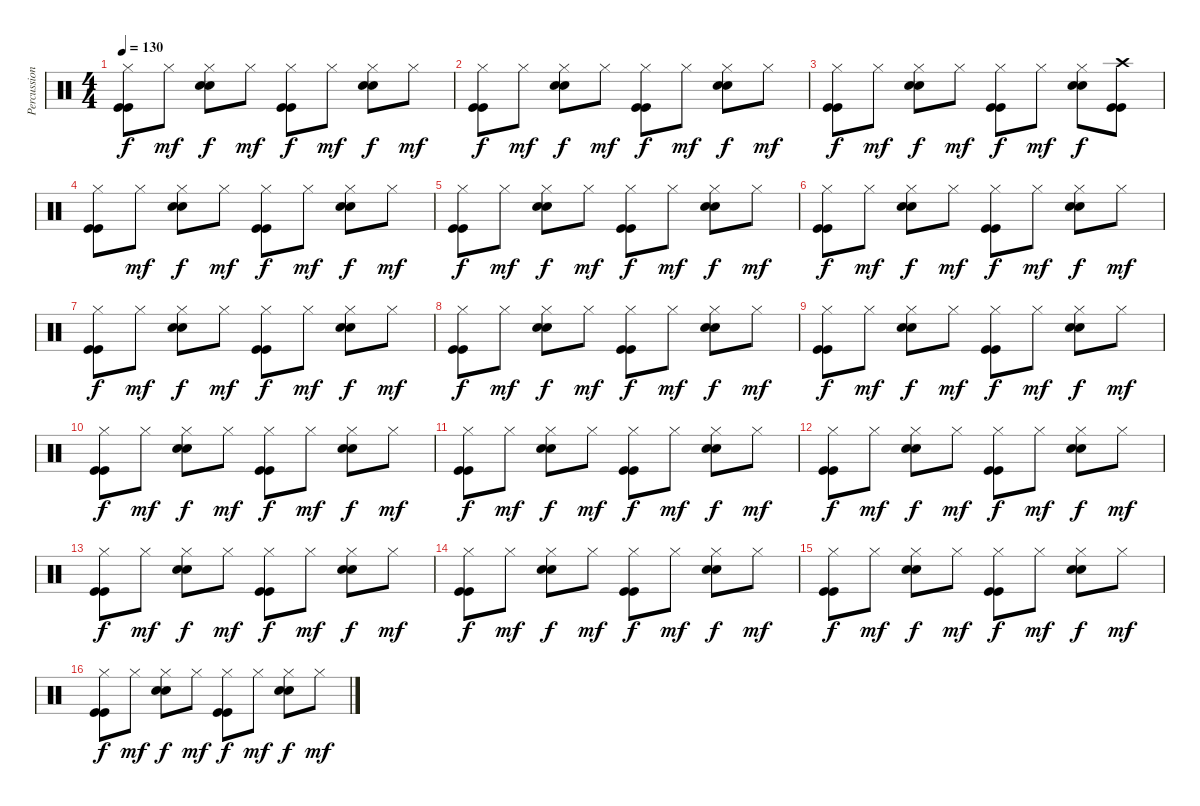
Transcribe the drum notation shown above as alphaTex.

\track ("Percussions" "Percussion") {instrument percussion}
\staff {score}
\articulation defaults
\ts (4 4)
\tempo 130
\clef neutral
\ks c
("Hi-Hat (closed)" "Kick (hit)" "Kick (hit)").8{dy f} "Hi-Hat (closed)".8{dy mf} ("Hi-Hat (closed)" "Snare (hit) 2" "Snare (hit) 2").8{dy f} "Hi-Hat (closed)".8{dy mf} ("Hi-Hat (closed)" "Kick (hit)" "Kick (hit)").8{dy f} "Hi-Hat (closed)".8{dy mf} ("Hi-Hat (closed)" "Snare (hit) 2" "Snare (hit) 2").8{dy f} "Hi-Hat (closed)".8{dy mf} |
("Hi-Hat (closed)" "Kick (hit)" "Kick (hit)").8{dy f} "Hi-Hat (closed)".8{dy mf} ("Hi-Hat (closed)" "Snare (hit) 2" "Snare (hit) 2").8{dy f} "Hi-Hat (closed)".8{dy mf} ("Hi-Hat (closed)" "Kick (hit)" "Kick (hit)").8{dy f} "Hi-Hat (closed)".8{dy mf} ("Hi-Hat (closed)" "Snare (hit) 2" "Snare (hit) 2").8{dy f} "Hi-Hat (closed)".8{dy mf} |
("Hi-Hat (closed)" "Kick (hit)" "Kick (hit)").8{dy f} "Hi-Hat (closed)".8{dy mf} ("Hi-Hat (closed)" "Snare (hit) 2" "Snare (hit) 2").8{dy f} "Hi-Hat (closed)".8{dy mf} ("Hi-Hat (closed)" "Kick (hit)" "Kick (hit)").8{dy f} "Hi-Hat (closed)".8{dy mf} ("Hi-Hat (closed)" "Snare (hit) 2" "Snare (hit) 2").8{dy f} ("Crash high (hit)" "Kick (hit)" "Kick (hit)").8 |
("Hi-Hat (closed)" "Kick (hit)" "Kick (hit)").8 "Hi-Hat (closed)".8{dy mf} ("Hi-Hat (closed)" "Snare (hit) 2" "Snare (hit) 2").8{dy f} "Hi-Hat (closed)".8{dy mf} ("Hi-Hat (closed)" "Kick (hit)" "Kick (hit)").8{dy f} "Hi-Hat (closed)".8{dy mf} ("Hi-Hat (closed)" "Snare (hit) 2" "Snare (hit) 2").8{dy f} "Hi-Hat (closed)".8{dy mf} |
("Hi-Hat (closed)" "Kick (hit)" "Kick (hit)").8{dy f} "Hi-Hat (closed)".8{dy mf} ("Hi-Hat (closed)" "Snare (hit) 2" "Snare (hit) 2").8{dy f} "Hi-Hat (closed)".8{dy mf} ("Hi-Hat (closed)" "Kick (hit)" "Kick (hit)").8{dy f} "Hi-Hat (closed)".8{dy mf} ("Hi-Hat (closed)" "Snare (hit) 2" "Snare (hit) 2").8{dy f} "Hi-Hat (closed)".8{dy mf} |
("Hi-Hat (closed)" "Kick (hit)" "Kick (hit)").8{dy f} "Hi-Hat (closed)".8{dy mf} ("Hi-Hat (closed)" "Snare (hit) 2" "Snare (hit) 2").8{dy f} "Hi-Hat (closed)".8{dy mf} ("Hi-Hat (closed)" "Kick (hit)" "Kick (hit)").8{dy f} "Hi-Hat (closed)".8{dy mf} ("Hi-Hat (closed)" "Snare (hit) 2" "Snare (hit) 2").8{dy f} "Hi-Hat (closed)".8{dy mf} |
("Hi-Hat (closed)" "Kick (hit)" "Kick (hit)").8{dy f} "Hi-Hat (closed)".8{dy mf} ("Hi-Hat (closed)" "Snare (hit) 2" "Snare (hit) 2").8{dy f} "Hi-Hat (closed)".8{dy mf} ("Hi-Hat (closed)" "Kick (hit)" "Kick (hit)").8{dy f} "Hi-Hat (closed)".8{dy mf} ("Hi-Hat (closed)" "Snare (hit) 2" "Snare (hit) 2").8{dy f} "Hi-Hat (closed)".8{dy mf} |
("Hi-Hat (closed)" "Kick (hit)" "Kick (hit)").8{dy f} "Hi-Hat (closed)".8{dy mf} ("Hi-Hat (closed)" "Snare (hit) 2" "Snare (hit) 2").8{dy f} "Hi-Hat (closed)".8{dy mf} ("Hi-Hat (closed)" "Kick (hit)" "Kick (hit)").8{dy f} "Hi-Hat (closed)".8{dy mf} ("Hi-Hat (closed)" "Snare (hit) 2" "Snare (hit) 2").8{dy f} "Hi-Hat (closed)".8{dy mf} |
("Hi-Hat (closed)" "Kick (hit)" "Kick (hit)").8{dy f} "Hi-Hat (closed)".8{dy mf} ("Hi-Hat (closed)" "Snare (hit) 2" "Snare (hit) 2").8{dy f} "Hi-Hat (closed)".8{dy mf} ("Hi-Hat (closed)" "Kick (hit)" "Kick (hit)").8{dy f} "Hi-Hat (closed)".8{dy mf} ("Hi-Hat (closed)" "Snare (hit) 2" "Snare (hit) 2").8{dy f} "Hi-Hat (closed)".8{dy mf} |
("Hi-Hat (closed)" "Kick (hit)" "Kick (hit)").8{dy f} "Hi-Hat (closed)".8{dy mf} ("Hi-Hat (closed)" "Snare (hit) 2" "Snare (hit) 2").8{dy f} "Hi-Hat (closed)".8{dy mf} ("Hi-Hat (closed)" "Kick (hit)" "Kick (hit)").8{dy f} "Hi-Hat (closed)".8{dy mf} ("Hi-Hat (closed)" "Snare (hit) 2" "Snare (hit) 2").8{dy f} "Hi-Hat (closed)".8{dy mf} |
("Hi-Hat (closed)" "Kick (hit)" "Kick (hit)").8{dy f} "Hi-Hat (closed)".8{dy mf} ("Hi-Hat (closed)" "Snare (hit) 2" "Snare (hit) 2").8{dy f} "Hi-Hat (closed)".8{dy mf} ("Hi-Hat (closed)" "Kick (hit)" "Kick (hit)").8{dy f} "Hi-Hat (closed)".8{dy mf} ("Hi-Hat (closed)" "Snare (hit) 2" "Snare (hit) 2").8{dy f} "Hi-Hat (closed)".8{dy mf} |
("Hi-Hat (closed)" "Kick (hit)" "Kick (hit)").8{dy f} "Hi-Hat (closed)".8{dy mf} ("Hi-Hat (closed)" "Snare (hit) 2" "Snare (hit) 2").8{dy f} "Hi-Hat (closed)".8{dy mf} ("Hi-Hat (closed)" "Kick (hit)" "Kick (hit)").8{dy f} "Hi-Hat (closed)".8{dy mf} ("Hi-Hat (closed)" "Snare (hit) 2" "Snare (hit) 2").8{dy f} "Hi-Hat (closed)".8{dy mf} |
("Hi-Hat (closed)" "Kick (hit)" "Kick (hit)").8{dy f} "Hi-Hat (closed)".8{dy mf} ("Hi-Hat (closed)" "Snare (hit) 2" "Snare (hit) 2").8{dy f} "Hi-Hat (closed)".8{dy mf} ("Hi-Hat (closed)" "Kick (hit)" "Kick (hit)").8{dy f} "Hi-Hat (closed)".8{dy mf} ("Hi-Hat (closed)" "Snare (hit) 2" "Snare (hit) 2").8{dy f} "Hi-Hat (closed)".8{dy mf} |
("Hi-Hat (closed)" "Kick (hit)" "Kick (hit)").8{dy f} "Hi-Hat (closed)".8{dy mf} ("Hi-Hat (closed)" "Snare (hit) 2" "Snare (hit) 2").8{dy f} "Hi-Hat (closed)".8{dy mf} ("Hi-Hat (closed)" "Kick (hit)" "Kick (hit)").8{dy f} "Hi-Hat (closed)".8{dy mf} ("Hi-Hat (closed)" "Snare (hit) 2" "Snare (hit) 2").8{dy f} "Hi-Hat (closed)".8{dy mf} |
("Hi-Hat (closed)" "Kick (hit)" "Kick (hit)").8{dy f} "Hi-Hat (closed)".8{dy mf} ("Hi-Hat (closed)" "Snare (hit) 2" "Snare (hit) 2").8{dy f} "Hi-Hat (closed)".8{dy mf} ("Hi-Hat (closed)" "Kick (hit)" "Kick (hit)").8{dy f} "Hi-Hat (closed)".8{dy mf} ("Hi-Hat (closed)" "Snare (hit) 2" "Snare (hit) 2").8{dy f} "Hi-Hat (closed)".8{dy mf} |
("Hi-Hat (closed)" "Kick (hit)" "Kick (hit)").8{dy f} "Hi-Hat (closed)".8{dy mf} ("Hi-Hat (closed)" "Snare (hit) 2" "Snare (hit) 2").8{dy f} "Hi-Hat (closed)".8{dy mf} ("Hi-Hat (closed)" "Kick (hit)" "Kick (hit)").8{dy f} "Hi-Hat (closed)".8{dy mf} ("Hi-Hat (closed)" "Snare (hit) 2" "Snare (hit) 2").8{dy f} "Hi-Hat (closed)".8{dy mf}
